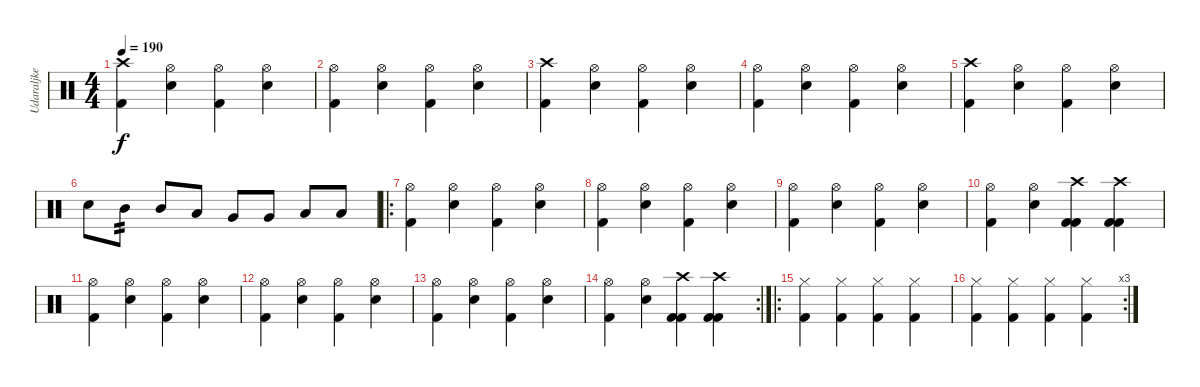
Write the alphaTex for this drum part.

\track ("Udaraljke" "Udaraljke") {instrument percussion}
\staff {score}
\articulation defaults
\ts (4 4)
\tempo 190
\clef neutral
\ks c
("Crash high (hit)" "Kick (hit) 2").4{dy f} ("Hi-Hat (open)" "Electric Snare (hit)").4 ("Hi-Hat (open)" "Kick (hit) 2").4 ("Hi-Hat (open)" "Electric Snare (hit)").4 |
("Hi-Hat (open)" "Kick (hit) 2").4 ("Hi-Hat (open)" "Electric Snare (hit)").4 ("Hi-Hat (open)" "Kick (hit) 2").4 ("Hi-Hat (open)" "Electric Snare (hit)").4 |
("Crash high (hit)" "Kick (hit) 2").4 ("Hi-Hat (open)" "Electric Snare (hit)").4 ("Hi-Hat (open)" "Kick (hit) 2").4 ("Hi-Hat (open)" "Electric Snare (hit)").4 |
("Hi-Hat (open)" "Kick (hit) 2").4 ("Hi-Hat (open)" "Electric Snare (hit)").4 ("Hi-Hat (open)" "Kick (hit) 2").4 ("Hi-Hat (open)" "Electric Snare (hit)").4 |
("Crash high (hit)" "Kick (hit) 2").4 ("Hi-Hat (open)" "Electric Snare (hit)").4 ("Hi-Hat (open)" "Kick (hit) 2").4 ("Hi-Hat (open)" "Electric Snare (hit)").4 |
"Electric Snare (hit)".8 "Mid Tom (hit)".8{tp 2} "Mid Tom (hit)".8 "Low Tom (hit)".8 "Very Low Tom (hit)".8 "Very Low Tom (hit)".8 "Low Floor Tom (hit)".8 "Low Floor Tom (hit)".8 |
\ro
("Kick (hit) 2" "Hi-Hat (open)").4 ("Electric Snare (hit)" "Hi-Hat (open)").4 ("Kick (hit) 2" "Hi-Hat (open)").4 ("Electric Snare (hit)" "Hi-Hat (open)").4 |
("Kick (hit) 2" "Hi-Hat (open)").4 ("Electric Snare (hit)" "Hi-Hat (open)").4 ("Kick (hit) 2" "Hi-Hat (open)").4 ("Electric Snare (hit)" "Hi-Hat (open)").4 |
("Kick (hit) 2" "Hi-Hat (open)").4 ("Electric Snare (hit)" "Hi-Hat (open)").4 ("Kick (hit) 2" "Hi-Hat (open)").4 ("Electric Snare (hit)" "Hi-Hat (open)").4 |
("Kick (hit) 2" "Hi-Hat (open)").4 ("Electric Snare (hit)" "Hi-Hat (open)").4 ("Kick (hit) 2" "Kick (hit) 2" "Crash high (hit)").4 ("Kick (hit) 2" "Kick (hit) 2" "Crash high (hit)").4 |
("Kick (hit) 2" "Hi-Hat (open)").4 ("Electric Snare (hit)" "Hi-Hat (open)").4 ("Kick (hit) 2" "Hi-Hat (open)").4 ("Electric Snare (hit)" "Hi-Hat (open)").4 |
("Kick (hit) 2" "Hi-Hat (open)").4 ("Electric Snare (hit)" "Hi-Hat (open)").4 ("Kick (hit) 2" "Hi-Hat (open)").4 ("Electric Snare (hit)" "Hi-Hat (open)").4 |
("Kick (hit) 2" "Hi-Hat (open)").4 ("Electric Snare (hit)" "Hi-Hat (open)").4 ("Kick (hit) 2" "Hi-Hat (open)").4 ("Electric Snare (hit)" "Hi-Hat (open)").4 |
\rc 2
("Kick (hit) 2" "Hi-Hat (open)").4 ("Electric Snare (hit)" "Hi-Hat (open)").4 ("Kick (hit) 2" "Kick (hit) 2" "Crash high (hit)").4 ("Kick (hit) 2" "Kick (hit) 2" "Crash high (hit)").4 |
\ro
("Hi-Hat (closed)" "Kick (hit) 2").4 ("Hi-Hat (closed)" "Kick (hit) 2").4 ("Hi-Hat (closed)" "Kick (hit) 2").4 ("Hi-Hat (closed)" "Kick (hit) 2").4 |
\rc 3
("Hi-Hat (closed)" "Kick (hit) 2").4 ("Hi-Hat (closed)" "Kick (hit) 2").4 ("Hi-Hat (closed)" "Kick (hit) 2").4 ("Hi-Hat (closed)" "Kick (hit) 2").4
